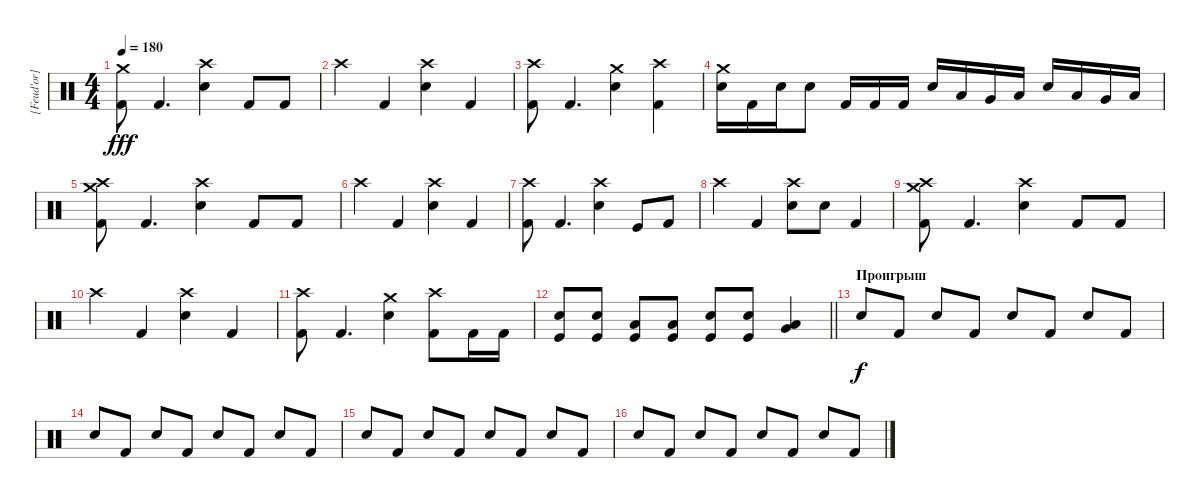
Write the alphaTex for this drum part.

\track ("[Feud'or] - Drums" "[Feud'or] ") {instrument percussion}
\staff {score}
\articulation defaults
\ts (4 4)
\tempo 180
\clef neutral
\ks c
("Crash medium (hit)" "Kick (hit) 2").8{dy fff} "Kick (hit) 2".4{d} ("Crash high (hit)" "Snare (hit) 2").4 "Kick (hit) 2".8 "Kick (hit) 2".8 |
"Crash high (hit)".4 "Kick (hit) 2".4 ("Crash high (hit)" "Snare (hit) 2").4 "Kick (hit) 2".4 |
("Crash high (hit)" "Kick (hit) 2").8 "Kick (hit) 2".4{d} ("Crash medium (hit)" "Snare (hit) 2").4 ("Crash high (hit)" "Kick (hit) 2").4 |
("Crash medium (hit)" "Snare (hit) 2").16 "Kick (hit) 2".16 "Snare (hit) 2".16 "Snare (hit) 2".8 "Kick (hit) 2".16 "Kick (hit) 2".16 "Kick (hit) 2".16 "Electric Snare (hit)".16 "Low Tom (hit)".16 "Very Low Tom (hit)".16 "Low Floor Tom (hit)".16 "Electric Snare (hit)".16 "Low Tom (hit)".16 "Very Low Tom (hit)".16 "Low Floor Tom (hit)".16 |
("Crash high (hit)" "Crash medium (hit)" "Kick (hit) 2").8 "Kick (hit) 2".4{d} ("Crash high (hit)" "Snare (hit) 2").4 "Kick (hit) 2".8 "Kick (hit) 2".8 |
"Crash high (hit)".4 "Kick (hit) 2".4 ("Crash high (hit)" "Snare (hit) 2").4 "Kick (hit) 2".4 |
("Crash high (hit)" "Kick (hit) 2").8 "Kick (hit) 2".4{d} ("Crash high (hit)" "Snare (hit) 2").4 "Kick (hit)".8 "Kick (hit) 2".8 |
"Crash high (hit)".4 "Kick (hit) 2".4 ("Crash high (hit)" "Snare (hit) 2").8 "Snare (hit) 2".8 "Kick (hit) 2".4 |
("Crash high (hit)" "Crash medium (hit)" "Kick (hit) 2").8 "Kick (hit) 2".4{d} ("Crash high (hit)" "Snare (hit) 2").4 "Kick (hit) 2".8 "Kick (hit) 2".8 |
"Crash high (hit)".4 "Kick (hit) 2".4 ("Crash high (hit)" "Snare (hit) 2").4 "Kick (hit) 2".4 |
("Crash high (hit)" "Kick (hit) 2").8 "Kick (hit) 2".4{d} ("Crash medium (hit)" "Snare (hit) 2").4 ("Crash high (hit)" "Kick (hit) 2").8 "Kick (hit) 2".16 "Kick (hit) 2".16 |
\barLineRight lightlight
("Kick (hit)" "Electric Snare (hit)").8 ("Kick (hit)" "Electric Snare (hit)").8 ("Kick (hit)" "Low Tom (hit)").8 ("Kick (hit)" "Low Floor Tom (hit)").8 ("Kick (hit)" "Electric Snare (hit)").8 ("Kick (hit)" "Electric Snare (hit)").8 ("Very Low Tom (hit)" "Low Floor Tom (hit)").4 |
\section ("" "Проигрыш")
"Electric Snare (hit)".8{dy f} "Kick (hit) 2".8 "Electric Snare (hit)".8 "Kick (hit) 2".8 "Electric Snare (hit)".8 "Kick (hit) 2".8 "Electric Snare (hit)".8 "Kick (hit) 2".8 |
"Electric Snare (hit)".8 "Kick (hit) 2".8 "Electric Snare (hit)".8 "Kick (hit) 2".8 "Electric Snare (hit)".8 "Kick (hit) 2".8 "Electric Snare (hit)".8 "Kick (hit) 2".8 |
"Electric Snare (hit)".8 "Kick (hit) 2".8 "Electric Snare (hit)".8 "Kick (hit) 2".8 "Electric Snare (hit)".8 "Kick (hit) 2".8 "Electric Snare (hit)".8 "Kick (hit) 2".8 |
"Electric Snare (hit)".8 "Kick (hit) 2".8 "Electric Snare (hit)".8 "Kick (hit) 2".8 "Electric Snare (hit)".8 "Kick (hit) 2".8 "Electric Snare (hit)".8 "Kick (hit) 2".8
